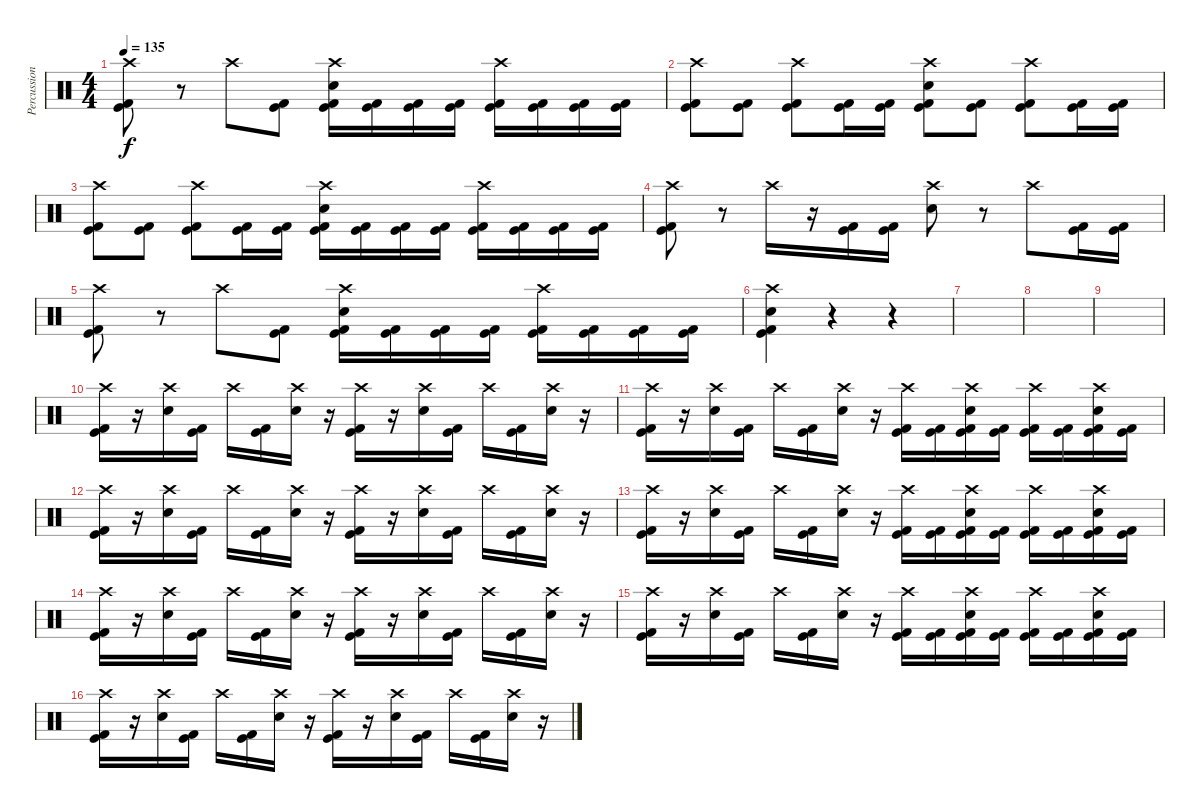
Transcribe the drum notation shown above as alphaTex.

\track ("Percussion" "Percussion") {instrument percussion}
\staff {score}
\articulation defaults
\ts (4 4)
\tempo 135
\clef neutral
\ks c
("Crash high (hit)" "Kick (hit)" "Kick (hit) 2").8{dy f} r.8 "Crash high (hit)".8 ("Kick (hit)" "Kick (hit) 2").8 ("Crash high (hit)" "Electric Snare (hit)" "Kick (hit)" "Kick (hit) 2").16 ("Kick (hit)" "Kick (hit) 2").16 ("Kick (hit)" "Kick (hit) 2").16 ("Kick (hit)" "Kick (hit) 2").16 ("Crash high (hit)" "Kick (hit)" "Kick (hit) 2").16 ("Kick (hit)" "Kick (hit) 2").16 ("Kick (hit)" "Kick (hit) 2").16 ("Kick (hit)" "Kick (hit) 2").16 |
("Crash high (hit)" "Kick (hit)" "Kick (hit) 2").8 ("Kick (hit)" "Kick (hit) 2").8 ("Crash high (hit)" "Kick (hit)" "Kick (hit) 2").8 ("Kick (hit)" "Kick (hit) 2").16 ("Kick (hit)" "Kick (hit) 2").16 ("Crash high (hit)" "Electric Snare (hit)" "Kick (hit)" "Kick (hit) 2").8 ("Kick (hit)" "Kick (hit) 2").8 ("Crash high (hit)" "Kick (hit)" "Kick (hit) 2").8 ("Kick (hit)" "Kick (hit) 2").16 ("Kick (hit)" "Kick (hit) 2").16 |
("Crash high (hit)" "Kick (hit)" "Kick (hit) 2").8 ("Kick (hit)" "Kick (hit) 2").8 ("Crash high (hit)" "Kick (hit)" "Kick (hit) 2").8 ("Kick (hit)" "Kick (hit) 2").16 ("Kick (hit)" "Kick (hit) 2").16 ("Crash high (hit)" "Electric Snare (hit)" "Kick (hit)" "Kick (hit) 2").16 ("Kick (hit)" "Kick (hit) 2").16 ("Kick (hit)" "Kick (hit) 2").16 ("Kick (hit)" "Kick (hit) 2").16 ("Crash high (hit)" "Kick (hit)" "Kick (hit) 2").16 ("Kick (hit)" "Kick (hit) 2").16 ("Kick (hit)" "Kick (hit) 2").16 ("Kick (hit)" "Kick (hit) 2").16 |
("Crash high (hit)" "Kick (hit)" "Kick (hit) 2").8 r.8 "Crash high (hit)".16 r.16 ("Kick (hit)" "Kick (hit) 2").16 ("Kick (hit)" "Kick (hit) 2").16 ("Crash high (hit)" "Electric Snare (hit)").8 r.8 "Crash high (hit)".8 ("Kick (hit)" "Kick (hit) 2").16 ("Kick (hit)" "Kick (hit) 2").16 |
("Crash high (hit)" "Kick (hit)" "Kick (hit) 2").8 r.8 "Crash high (hit)".8 ("Kick (hit)" "Kick (hit) 2").8 ("Crash high (hit)" "Electric Snare (hit)" "Kick (hit)" "Kick (hit) 2").16 ("Kick (hit)" "Kick (hit) 2").16 ("Kick (hit)" "Kick (hit) 2").16 ("Kick (hit)" "Kick (hit) 2").16 ("Crash high (hit)" "Kick (hit)" "Kick (hit) 2").16 ("Kick (hit)" "Kick (hit) 2").16 ("Kick (hit)" "Kick (hit) 2").16 ("Kick (hit)" "Kick (hit) 2").16 |
("Crash high (hit)" "Electric Snare (hit)" "Kick (hit)" "Kick (hit) 2").4 r.4 r.4 |
|
|
|
("Crash high (hit)" "Kick (hit)" "Kick (hit) 2").16 r.16 ("Crash high (hit)" "Electric Snare (hit)").16 ("Kick (hit) 2" "Kick (hit)").16 "Crash high (hit)".16 ("Kick (hit) 2" "Kick (hit)").16 ("Crash high (hit)" "Electric Snare (hit)").16 r.16 ("Crash high (hit)" "Kick (hit)" "Kick (hit) 2").16 r.16 ("Crash high (hit)" "Electric Snare (hit)").16 ("Kick (hit) 2" "Kick (hit)").16 "Crash high (hit)".16 ("Kick (hit) 2" "Kick (hit)").16 ("Crash high (hit)" "Electric Snare (hit)").16 r.16 |
("Crash high (hit)" "Kick (hit)" "Kick (hit) 2").16 r.16 ("Crash high (hit)" "Electric Snare (hit)").16 ("Kick (hit) 2" "Kick (hit)").16 "Crash high (hit)".16 ("Kick (hit) 2" "Kick (hit)").16 ("Crash high (hit)" "Electric Snare (hit)").16 r.16 ("Crash high (hit)" "Kick (hit) 2" "Kick (hit)").16 ("Kick (hit) 2" "Kick (hit)").16 ("Crash high (hit)" "Electric Snare (hit)" "Kick (hit) 2" "Kick (hit)").16 ("Kick (hit) 2" "Kick (hit)").16 ("Crash high (hit)" "Kick (hit) 2" "Kick (hit)").16 ("Kick (hit) 2" "Kick (hit)").16 ("Crash high (hit)" "Electric Snare (hit)" "Kick (hit) 2" "Kick (hit)").16 ("Kick (hit) 2" "Kick (hit)").16 |
("Crash high (hit)" "Kick (hit)" "Kick (hit) 2").16 r.16 ("Crash high (hit)" "Electric Snare (hit)").16 ("Kick (hit) 2" "Kick (hit)").16 "Crash high (hit)".16 ("Kick (hit) 2" "Kick (hit)").16 ("Crash high (hit)" "Electric Snare (hit)").16 r.16 ("Crash high (hit)" "Kick (hit)" "Kick (hit) 2").16 r.16 ("Crash high (hit)" "Electric Snare (hit)").16 ("Kick (hit) 2" "Kick (hit)").16 "Crash high (hit)".16 ("Kick (hit) 2" "Kick (hit)").16 ("Crash high (hit)" "Electric Snare (hit)").16 r.16 |
("Crash high (hit)" "Kick (hit)" "Kick (hit) 2").16 r.16 ("Crash high (hit)" "Electric Snare (hit)").16 ("Kick (hit) 2" "Kick (hit)").16 "Crash high (hit)".16 ("Kick (hit) 2" "Kick (hit)").16 ("Crash high (hit)" "Electric Snare (hit)").16 r.16 ("Crash high (hit)" "Kick (hit) 2" "Kick (hit)").16 ("Kick (hit) 2" "Kick (hit)").16 ("Crash high (hit)" "Electric Snare (hit)" "Kick (hit) 2" "Kick (hit)").16 ("Kick (hit) 2" "Kick (hit)").16 ("Crash high (hit)" "Kick (hit) 2" "Kick (hit)").16 ("Kick (hit) 2" "Kick (hit)").16 ("Crash high (hit)" "Electric Snare (hit)" "Kick (hit) 2" "Kick (hit)").16 ("Kick (hit) 2" "Kick (hit)").16 |
("Crash high (hit)" "Kick (hit)" "Kick (hit) 2").16 r.16 ("Crash high (hit)" "Electric Snare (hit)").16 ("Kick (hit) 2" "Kick (hit)").16 "Crash high (hit)".16 ("Kick (hit) 2" "Kick (hit)").16 ("Crash high (hit)" "Electric Snare (hit)").16 r.16 ("Crash high (hit)" "Kick (hit)" "Kick (hit) 2").16 r.16 ("Crash high (hit)" "Electric Snare (hit)").16 ("Kick (hit) 2" "Kick (hit)").16 "Crash high (hit)".16 ("Kick (hit) 2" "Kick (hit)").16 ("Crash high (hit)" "Electric Snare (hit)").16 r.16 |
("Crash high (hit)" "Kick (hit)" "Kick (hit) 2").16 r.16 ("Crash high (hit)" "Electric Snare (hit)").16 ("Kick (hit) 2" "Kick (hit)").16 "Crash high (hit)".16 ("Kick (hit) 2" "Kick (hit)").16 ("Crash high (hit)" "Electric Snare (hit)").16 r.16 ("Crash high (hit)" "Kick (hit) 2" "Kick (hit)").16 ("Kick (hit) 2" "Kick (hit)").16 ("Crash high (hit)" "Electric Snare (hit)" "Kick (hit) 2" "Kick (hit)").16 ("Kick (hit) 2" "Kick (hit)").16 ("Crash high (hit)" "Kick (hit) 2" "Kick (hit)").16 ("Kick (hit) 2" "Kick (hit)").16 ("Crash high (hit)" "Electric Snare (hit)" "Kick (hit) 2" "Kick (hit)").16 ("Kick (hit) 2" "Kick (hit)").16 |
("Crash high (hit)" "Kick (hit)" "Kick (hit) 2").16 r.16 ("Crash high (hit)" "Electric Snare (hit)").16 ("Kick (hit) 2" "Kick (hit)").16 "Crash high (hit)".16 ("Kick (hit) 2" "Kick (hit)").16 ("Crash high (hit)" "Electric Snare (hit)").16 r.16 ("Crash high (hit)" "Kick (hit)" "Kick (hit) 2").16 r.16 ("Crash high (hit)" "Electric Snare (hit)").16 ("Kick (hit) 2" "Kick (hit)").16 "Crash high (hit)".16 ("Kick (hit) 2" "Kick (hit)").16 ("Crash high (hit)" "Electric Snare (hit)").16 r.16
